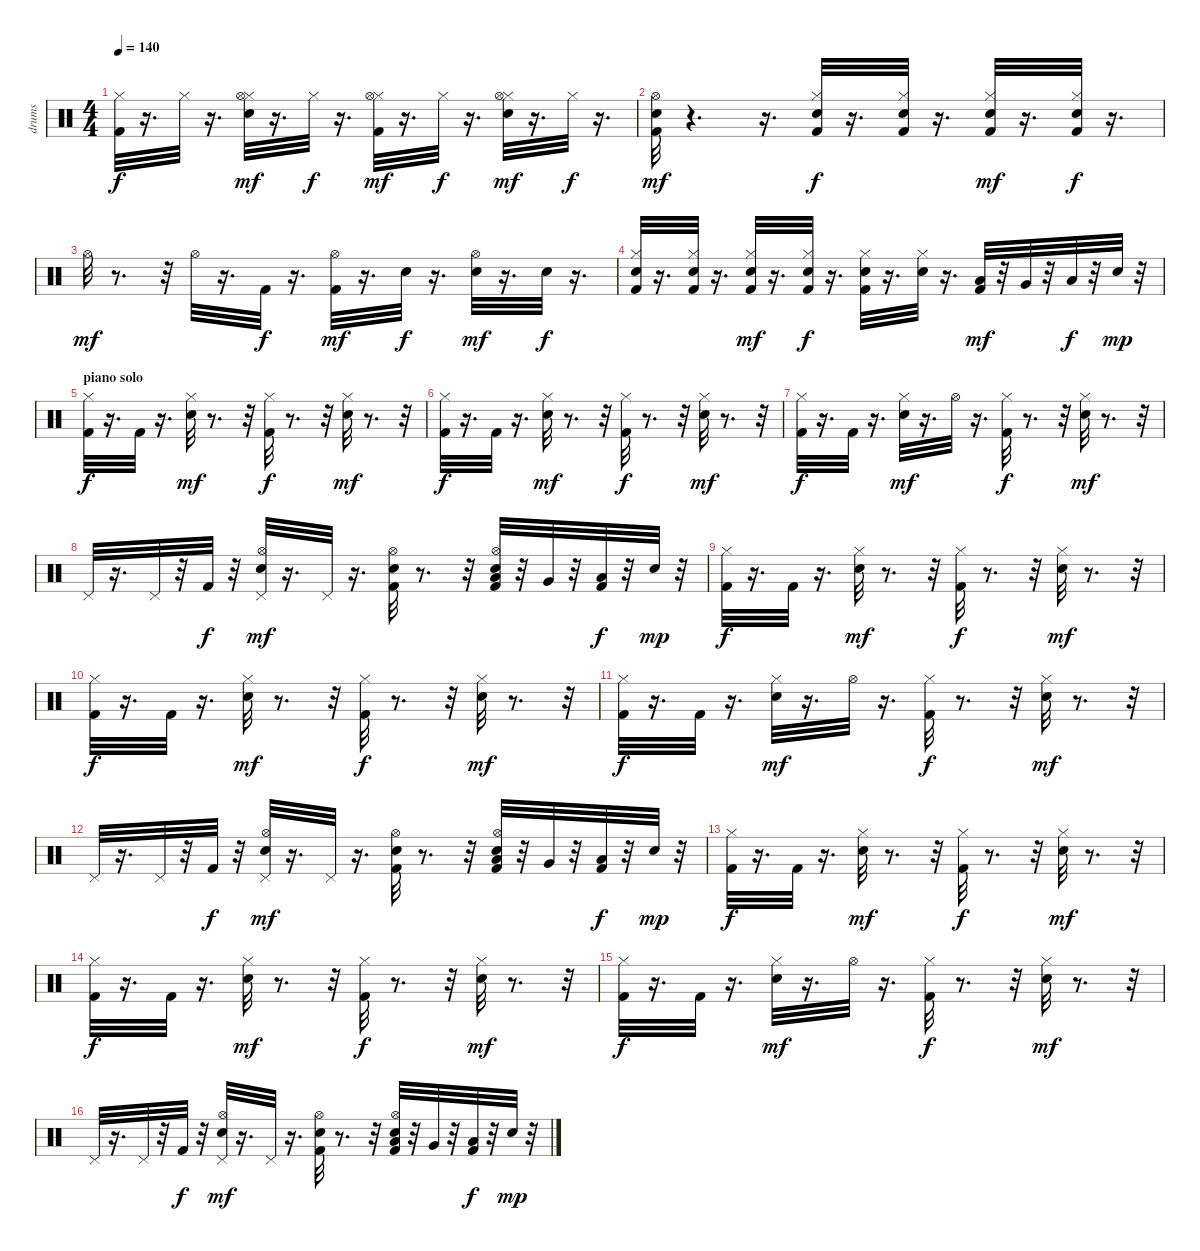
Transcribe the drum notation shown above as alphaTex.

\track ("drums" "drums") {instrument percussion}
\staff {score}
\articulation defaults
\ts (4 4)
\tempo 140
\clef neutral
\ks c
("Kick (hit) 2" "Hi-Hat (closed)").32{dy f} r.16{d} "Hi-Hat (closed)".32 r.16{d} ("Snare (hit) 2" "Hi-Hat (closed)" "Hi-Hat (open)").32{dy mf} r.16{d} "Hi-Hat (closed)".32{dy f} r.16{d} ("Kick (hit) 2" "Hi-Hat (closed)" "Hi-Hat (open)").32{dy mf} r.16{d} "Hi-Hat (closed)".32{dy f} r.16{d} ("Snare (hit) 2" "Hi-Hat (closed)" "Hi-Hat (open)").32{dy mf} r.16{d} "Hi-Hat (closed)".32{dy f} r.16{d} |
("Kick (hit) 2" "Snare (hit) 2" "Hi-Hat (open)").32{dy mf} r.4{d} r.16{d} ("Kick (hit) 2" "Snare (hit) 2" "Hi-Hat (closed)").32{dy f} r.16{d} ("Kick (hit) 2" "Snare (hit) 2" "Hi-Hat (closed)").32 r.16{d} ("Kick (hit) 2" "Snare (hit) 2" "Hi-Hat (closed)").32{dy mf} r.16{d} ("Kick (hit) 2" "Snare (hit) 2" "Hi-Hat (closed)").32{dy f} r.16{d} |
"Hi-Hat (open)".32{dy mf} r.8{d} r.32 "Hi-Hat (open)".32 r.16{d} "Kick (hit) 2".32{dy f} r.16{d} ("Kick (hit) 2" "Hi-Hat (open)").32{dy mf} r.16{d} "Electric Snare (hit)".32{dy f} r.16{d} ("Electric Snare (hit)" "Hi-Hat (open)").32{dy mf} r.16{d} "Electric Snare (hit)".32{dy f} r.16{d} |
("Kick (hit) 2" "Snare (hit) 2" "Hi-Hat (closed)").32 r.16{d} ("Kick (hit) 2" "Snare (hit) 2" "Hi-Hat (closed)").32 r.16{d} ("Kick (hit) 2" "Snare (hit) 2" "Hi-Hat (closed)").32{dy mf} r.16{d} ("Kick (hit) 2" "Snare (hit) 2" "Hi-Hat (closed)").32{dy f} r.16{d} ("Kick (hit) 2" "Snare (hit) 2" "Hi-Hat (closed)").32 r.16{d} ("Snare (hit) 2" "Hi-Hat (closed)").32 r.16{d} ("Kick (hit) 2" "Low Tom (hit)").32{dy mf} r.32 "Very Low Tom (hit)".32 r.32 "Low Floor Tom (hit)".32{dy f} r.32 "Electric Snare (hit)".32{dy mp} r.32 |
\section ("" "piano solo")
("Kick (hit) 2" "Hi-Hat (closed)").32{dy f} r.16{d} "Kick (hit) 2".32 r.16{d} ("Snare (hit) 2" "Hi-Hat (closed)").32{dy mf} r.8{d} r.32 ("Kick (hit) 2" "Hi-Hat (closed)").32{dy f} r.8{d} r.32 ("Snare (hit) 2" "Hi-Hat (closed)").32{dy mf} r.8{d} r.32 |
("Kick (hit) 2" "Hi-Hat (closed)").32{dy f} r.16{d} "Kick (hit) 2".32 r.16{d} ("Snare (hit) 2" "Hi-Hat (closed)").32{dy mf} r.8{d} r.32 ("Kick (hit) 2" "Hi-Hat (closed)").32{dy f} r.8{d} r.32 ("Snare (hit) 2" "Hi-Hat (closed)").32{dy mf} r.8{d} r.32 |
("Kick (hit) 2" "Hi-Hat (closed)").32{dy f} r.16{d} "Kick (hit) 2".32 r.16{d} ("Snare (hit) 2" "Hi-Hat (closed)").32{dy mf} r.16{d} "Hi-Hat (open)".32 r.16{d} ("Kick (hit) 2" "Hi-Hat (closed)").32{dy f} r.8{d} r.32 ("Snare (hit) 2" "Hi-Hat (closed)").32{dy mf} r.8{d} r.32 |
"Pedal Hi-Hat (hit)".32 r.16{d} "Pedal Hi-Hat (hit)".32 r.32 "Kick (hit) 2".32{dy f} r.32 ("Snare (hit) 2" "Pedal Hi-Hat (hit)" "Hi-Hat (open)").32{dy mf} r.16{d} "Pedal Hi-Hat (hit)".32 r.16{d} ("Kick (hit) 2" "Snare (hit) 2" "Hi-Hat (open)").32 r.8{d} r.32 ("Kick (hit) 2" "Snare (hit) 2" "Low Tom (hit)" "Hi-Hat (open)").32 r.32 "Very Low Tom (hit)".32 r.32 ("Kick (hit) 2" "Low Floor Tom (hit)").32{dy f} r.32 "Electric Snare (hit)".32{dy mp} r.32 |
("Kick (hit) 2" "Hi-Hat (closed)").32{dy f} r.16{d} "Kick (hit) 2".32 r.16{d} ("Snare (hit) 2" "Hi-Hat (closed)").32{dy mf} r.8{d} r.32 ("Kick (hit) 2" "Hi-Hat (closed)").32{dy f} r.8{d} r.32 ("Snare (hit) 2" "Hi-Hat (closed)").32{dy mf} r.8{d} r.32 |
("Kick (hit) 2" "Hi-Hat (closed)").32{dy f} r.16{d} "Kick (hit) 2".32 r.16{d} ("Snare (hit) 2" "Hi-Hat (closed)").32{dy mf} r.8{d} r.32 ("Kick (hit) 2" "Hi-Hat (closed)").32{dy f} r.8{d} r.32 ("Snare (hit) 2" "Hi-Hat (closed)").32{dy mf} r.8{d} r.32 |
("Kick (hit) 2" "Hi-Hat (closed)").32{dy f} r.16{d} "Kick (hit) 2".32 r.16{d} ("Snare (hit) 2" "Hi-Hat (closed)").32{dy mf} r.16{d} "Hi-Hat (open)".32 r.16{d} ("Kick (hit) 2" "Hi-Hat (closed)").32{dy f} r.8{d} r.32 ("Snare (hit) 2" "Hi-Hat (closed)").32{dy mf} r.8{d} r.32 |
"Pedal Hi-Hat (hit)".32 r.16{d} "Pedal Hi-Hat (hit)".32 r.32 "Kick (hit) 2".32{dy f} r.32 ("Snare (hit) 2" "Pedal Hi-Hat (hit)" "Hi-Hat (open)").32{dy mf} r.16{d} "Pedal Hi-Hat (hit)".32 r.16{d} ("Kick (hit) 2" "Snare (hit) 2" "Hi-Hat (open)").32 r.8{d} r.32 ("Kick (hit) 2" "Snare (hit) 2" "Low Tom (hit)" "Hi-Hat (open)").32 r.32 "Very Low Tom (hit)".32 r.32 ("Kick (hit) 2" "Low Floor Tom (hit)").32{dy f} r.32 "Electric Snare (hit)".32{dy mp} r.32 |
("Kick (hit) 2" "Hi-Hat (closed)").32{dy f} r.16{d} "Kick (hit) 2".32 r.16{d} ("Snare (hit) 2" "Hi-Hat (closed)").32{dy mf} r.8{d} r.32 ("Kick (hit) 2" "Hi-Hat (closed)").32{dy f} r.8{d} r.32 ("Snare (hit) 2" "Hi-Hat (closed)").32{dy mf} r.8{d} r.32 |
("Kick (hit) 2" "Hi-Hat (closed)").32{dy f} r.16{d} "Kick (hit) 2".32 r.16{d} ("Snare (hit) 2" "Hi-Hat (closed)").32{dy mf} r.8{d} r.32 ("Kick (hit) 2" "Hi-Hat (closed)").32{dy f} r.8{d} r.32 ("Snare (hit) 2" "Hi-Hat (closed)").32{dy mf} r.8{d} r.32 |
("Kick (hit) 2" "Hi-Hat (closed)").32{dy f} r.16{d} "Kick (hit) 2".32 r.16{d} ("Snare (hit) 2" "Hi-Hat (closed)").32{dy mf} r.16{d} "Hi-Hat (open)".32 r.16{d} ("Kick (hit) 2" "Hi-Hat (closed)").32{dy f} r.8{d} r.32 ("Snare (hit) 2" "Hi-Hat (closed)").32{dy mf} r.8{d} r.32 |
"Pedal Hi-Hat (hit)".32 r.16{d} "Pedal Hi-Hat (hit)".32 r.32 "Kick (hit) 2".32{dy f} r.32 ("Snare (hit) 2" "Pedal Hi-Hat (hit)" "Hi-Hat (open)").32{dy mf} r.16{d} "Pedal Hi-Hat (hit)".32 r.16{d} ("Kick (hit) 2" "Snare (hit) 2" "Hi-Hat (open)").32 r.8{d} r.32 ("Kick (hit) 2" "Snare (hit) 2" "Low Tom (hit)" "Hi-Hat (open)").32 r.32 "Very Low Tom (hit)".32 r.32 ("Kick (hit) 2" "Low Floor Tom (hit)").32{dy f} r.32 "Electric Snare (hit)".32{dy mp} r.32
